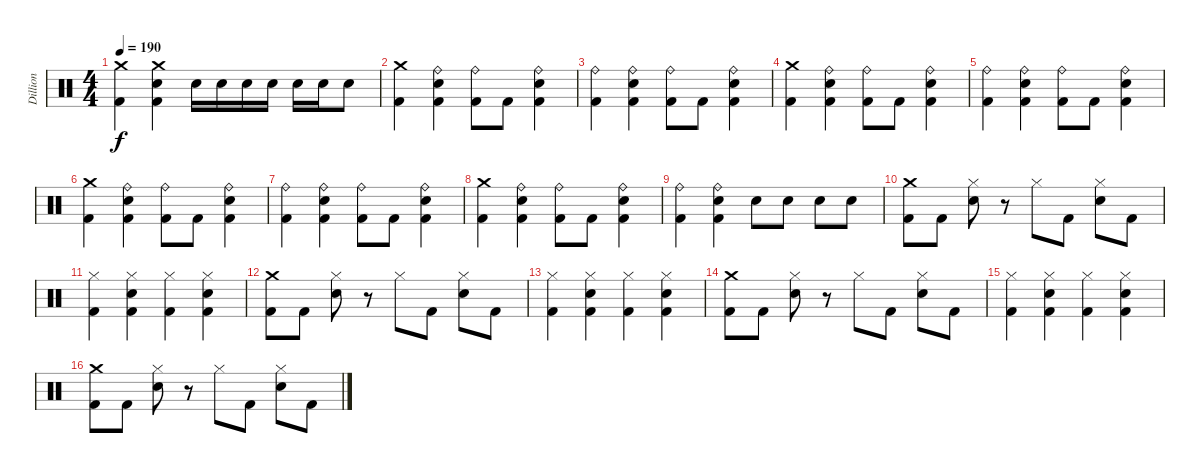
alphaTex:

\track ("Dillion" "Dillion") {instrument percussion}
\staff {score}
\articulation defaults
\ts (4 4)
\tempo 190
\clef neutral
\ks c
("Crash medium (hit)" "Kick (hit) 2").4{dy f} ("Crash medium (hit)" "Electric Snare (hit)" "Kick (hit) 2").4 "Electric Snare (hit)".16 "Electric Snare (hit)".16 "Electric Snare (hit)".16 "Electric Snare (hit)".16 "Electric Snare (hit)".16 "Electric Snare (hit)".16 "Electric Snare (hit)".8 |
("Crash medium (hit)" "Kick (hit) 2").4 ("Ride (bell)" "Electric Snare (hit)" "Kick (hit) 2").4 ("Ride (bell)" "Kick (hit) 2").8 "Kick (hit) 2".8 ("Ride (bell)" "Electric Snare (hit)" "Kick (hit) 2").4 |
("Ride (bell)" "Kick (hit) 2").4 ("Ride (bell)" "Electric Snare (hit)" "Kick (hit) 2").4 ("Ride (bell)" "Kick (hit) 2").8 "Kick (hit) 2".8 ("Ride (bell)" "Electric Snare (hit)" "Kick (hit) 2").4 |
("Crash medium (hit)" "Kick (hit) 2").4 ("Ride (bell)" "Electric Snare (hit)" "Kick (hit) 2").4 ("Ride (bell)" "Kick (hit) 2").8 "Kick (hit) 2".8 ("Ride (bell)" "Electric Snare (hit)" "Kick (hit) 2").4 |
("Ride (bell)" "Kick (hit) 2").4 ("Ride (bell)" "Electric Snare (hit)" "Kick (hit) 2").4 ("Ride (bell)" "Kick (hit) 2").8 "Kick (hit) 2".8 ("Ride (bell)" "Electric Snare (hit)" "Kick (hit) 2").4 |
("Crash medium (hit)" "Kick (hit) 2").4 ("Ride (bell)" "Electric Snare (hit)" "Kick (hit) 2").4 ("Ride (bell)" "Kick (hit) 2").8 "Kick (hit) 2".8 ("Ride (bell)" "Electric Snare (hit)" "Kick (hit) 2").4 |
("Ride (bell)" "Kick (hit) 2").4 ("Ride (bell)" "Electric Snare (hit)" "Kick (hit) 2").4 ("Ride (bell)" "Kick (hit) 2").8 "Kick (hit) 2".8 ("Ride (bell)" "Electric Snare (hit)" "Kick (hit) 2").4 |
("Crash medium (hit)" "Kick (hit) 2").4 ("Ride (bell)" "Electric Snare (hit)" "Kick (hit) 2").4 ("Ride (bell)" "Kick (hit) 2").8 "Kick (hit) 2".8 ("Ride (bell)" "Electric Snare (hit)" "Kick (hit) 2").4 |
("Ride (bell)" "Kick (hit) 2").4 ("Ride (bell)" "Electric Snare (hit)" "Kick (hit) 2").4 "Electric Snare (hit)".8 "Electric Snare (hit)".8 "Electric Snare (hit)".8 "Electric Snare (hit)".8 |
("Crash medium (hit)" "Kick (hit) 2").8 "Kick (hit) 2".8 ("Hi-Hat (closed)" "Electric Snare (hit)").8 r.8 "Hi-Hat (closed)".8 "Kick (hit) 2".8 ("Hi-Hat (closed)" "Electric Snare (hit)").8 "Kick (hit) 2".8 |
("Hi-Hat (closed)" "Kick (hit) 2").4 ("Hi-Hat (closed)" "Electric Snare (hit)" "Kick (hit) 2").4 ("Hi-Hat (closed)" "Kick (hit) 2").4 ("Hi-Hat (closed)" "Electric Snare (hit)" "Kick (hit) 2").4 |
("Crash medium (hit)" "Kick (hit) 2").8 "Kick (hit) 2".8 ("Hi-Hat (closed)" "Electric Snare (hit)").8 r.8 "Hi-Hat (closed)".8 "Kick (hit) 2".8 ("Hi-Hat (closed)" "Electric Snare (hit)").8 "Kick (hit) 2".8 |
("Hi-Hat (closed)" "Kick (hit) 2").4 ("Hi-Hat (closed)" "Electric Snare (hit)" "Kick (hit) 2").4 ("Hi-Hat (closed)" "Kick (hit) 2").4 ("Hi-Hat (closed)" "Electric Snare (hit)" "Kick (hit) 2").4 |
("Crash medium (hit)" "Kick (hit) 2").8 "Kick (hit) 2".8 ("Hi-Hat (closed)" "Electric Snare (hit)").8 r.8 "Hi-Hat (closed)".8 "Kick (hit) 2".8 ("Hi-Hat (closed)" "Electric Snare (hit)").8 "Kick (hit) 2".8 |
("Hi-Hat (closed)" "Kick (hit) 2").4 ("Hi-Hat (closed)" "Electric Snare (hit)" "Kick (hit) 2").4 ("Hi-Hat (closed)" "Kick (hit) 2").4 ("Hi-Hat (closed)" "Electric Snare (hit)" "Kick (hit) 2").4 |
("Crash medium (hit)" "Kick (hit) 2").8 "Kick (hit) 2".8 ("Hi-Hat (closed)" "Electric Snare (hit)").8 r.8 "Hi-Hat (closed)".8 "Kick (hit) 2".8 ("Hi-Hat (closed)" "Electric Snare (hit)").8 "Kick (hit) 2".8
